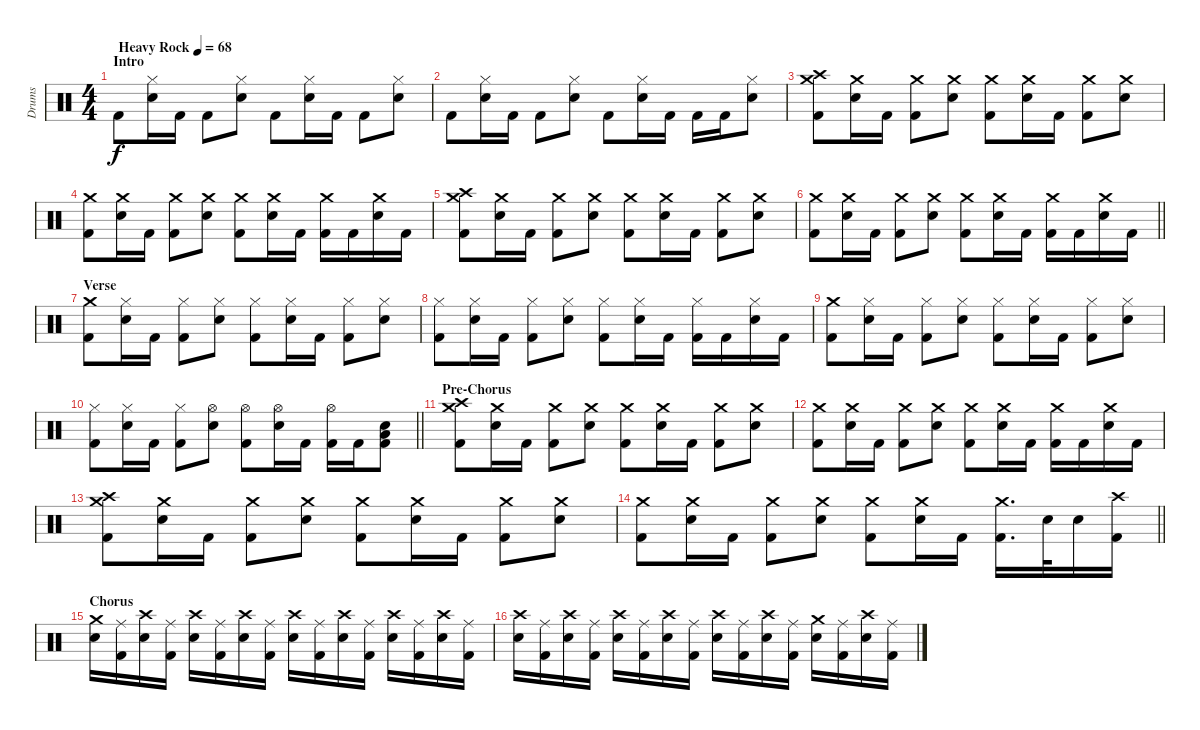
\track ("Drums" "Drums") {instrument percussion}
\staff {score}
\articulation defaults
\ts (4 4)
\section ("" "Intro")
\tempo (68 "Heavy Rock")
\clef neutral
\ks c "Kick (hit) 2".8{dy f}
("Hi-Hat (closed)" "Electric Snare (hit)").16 "Kick (hit) 2".16 "Kick (hit) 2".8 ("Hi-Hat (closed)" "Electric Snare (hit)").8 "Kick (hit) 2".8 ("Hi-Hat (closed)" "Electric Snare (hit)").16 "Kick (hit) 2".16 "Kick (hit) 2".8 ("Hi-Hat (closed)" "Electric Snare (hit)").8 |
"Kick (hit) 2".8 ("Hi-Hat (closed)" "Electric Snare (hit)").16 "Kick (hit) 2".16 "Kick (hit) 2".8 ("Hi-Hat (closed)" "Electric Snare (hit)").8 "Kick (hit) 2".8 ("Hi-Hat (closed)" "Electric Snare (hit)").16 "Kick (hit) 2".16 "Kick (hit) 2".16 "Kick (hit) 2".16 ("Hi-Hat (closed)" "Electric Snare (hit)").8 |
("Crash medium (hit)" "Crash high (hit)" "Kick (hit) 2").8 ("Crash medium (hit)" "Electric Snare (hit)").16 "Kick (hit) 2".16 ("Crash medium (hit)" "Kick (hit) 2").8 ("Crash medium (hit)" "Electric Snare (hit)").8 ("Crash medium (hit)" "Kick (hit) 2").8 ("Crash medium (hit)" "Electric Snare (hit)").16 "Kick (hit) 2".16 ("Crash medium (hit)" "Kick (hit) 2").8 ("Crash medium (hit)" "Electric Snare (hit)").8 |
("Crash medium (hit)" "Kick (hit) 2").8 ("Crash medium (hit)" "Electric Snare (hit)").16 "Kick (hit) 2".16 ("Crash medium (hit)" "Kick (hit) 2").8 ("Crash medium (hit)" "Electric Snare (hit)").8 ("Crash medium (hit)" "Kick (hit) 2").8 ("Crash medium (hit)" "Electric Snare (hit)").16 "Kick (hit) 2".16 ("Crash medium (hit)" "Kick (hit) 2").16 "Kick (hit) 2".16 ("Crash medium (hit)" "Electric Snare (hit)").16 "Kick (hit) 2".16 |
("Crash medium (hit)" "Crash high (hit)" "Kick (hit) 2").8 ("Crash medium (hit)" "Electric Snare (hit)").16 "Kick (hit) 2".16 ("Crash medium (hit)" "Kick (hit) 2").8 ("Crash medium (hit)" "Electric Snare (hit)").8 ("Crash medium (hit)" "Kick (hit) 2").8 ("Crash medium (hit)" "Electric Snare (hit)").16 "Kick (hit) 2".16 ("Crash medium (hit)" "Kick (hit) 2").8 ("Crash medium (hit)" "Electric Snare (hit)").8 |
\barLineRight lightlight
("Crash medium (hit)" "Kick (hit) 2").8 ("Crash medium (hit)" "Electric Snare (hit)").16 "Kick (hit) 2".16 ("Crash medium (hit)" "Kick (hit) 2").8 ("Crash medium (hit)" "Electric Snare (hit)").8 ("Crash medium (hit)" "Kick (hit) 2").8 ("Crash medium (hit)" "Electric Snare (hit)").16 "Kick (hit) 2".16 ("Crash medium (hit)" "Kick (hit) 2").16 "Kick (hit) 2".16 ("Crash medium (hit)" "Electric Snare (hit)").16 "Kick (hit) 2".16 |
\section ("" "Verse")
("Crash medium (hit)" "Kick (hit) 2").8 ("Hi-Hat (closed)" "Electric Snare (hit)").16 "Kick (hit) 2".16 ("Hi-Hat (closed)" "Kick (hit) 2").8 ("Hi-Hat (closed)" "Electric Snare (hit)").8 ("Hi-Hat (closed)" "Kick (hit) 2").8 ("Hi-Hat (closed)" "Electric Snare (hit)").16 "Kick (hit) 2".16 ("Hi-Hat (closed)" "Kick (hit) 2").8 ("Hi-Hat (closed)" "Electric Snare (hit)").8 |
("Hi-Hat (closed)" "Kick (hit) 2").8 ("Hi-Hat (closed)" "Electric Snare (hit)").16 "Kick (hit) 2".16 ("Hi-Hat (closed)" "Kick (hit) 2").8 ("Hi-Hat (closed)" "Electric Snare (hit)").8 ("Hi-Hat (closed)" "Kick (hit) 2").8 ("Hi-Hat (closed)" "Electric Snare (hit)").16 "Kick (hit) 2".16 ("Hi-Hat (closed)" "Kick (hit) 2").16 "Kick (hit) 2".16 ("Hi-Hat (closed)" "Electric Snare (hit)").16 "Kick (hit) 2".16 |
("Crash medium (hit)" "Kick (hit) 2").8 ("Hi-Hat (closed)" "Electric Snare (hit)").16 "Kick (hit) 2".16 ("Hi-Hat (closed)" "Kick (hit) 2").8 ("Hi-Hat (closed)" "Electric Snare (hit)").8 ("Hi-Hat (closed)" "Kick (hit) 2").8 ("Hi-Hat (closed)" "Electric Snare (hit)").16 "Kick (hit) 2".16 ("Hi-Hat (closed)" "Kick (hit) 2").8 ("Hi-Hat (closed)" "Electric Snare (hit)").8 |
\barLineRight lightlight
("Hi-Hat (closed)" "Kick (hit) 2").8 ("Hi-Hat (closed)" "Electric Snare (hit)").16 "Kick (hit) 2".16 ("Hi-Hat (closed)" "Kick (hit) 2").8 ("Hi-Hat (open)" "Electric Snare (hit)").8 ("Hi-Hat (open)" "Kick (hit) 2").8 ("Hi-Hat (open)" "Electric Snare (hit)").16 "Kick (hit) 2".16 ("Hi-Hat (open)" "Kick (hit) 2").16 "Kick (hit) 2".16 ("Low Floor Tom (hit)" "Electric Snare (hit)" "Kick (hit) 2").8 |
\section ("" "Pre-Chorus")
("Crash medium (hit)" "Crash high (hit)" "Kick (hit) 2").8 ("Crash medium (hit)" "Electric Snare (hit)").16 "Kick (hit) 2".16 ("Crash medium (hit)" "Kick (hit) 2").8 ("Crash medium (hit)" "Electric Snare (hit)").8 ("Crash medium (hit)" "Kick (hit) 2").8 ("Crash medium (hit)" "Electric Snare (hit)").16 "Kick (hit) 2".16 ("Crash medium (hit)" "Kick (hit) 2").8 ("Crash medium (hit)" "Electric Snare (hit)").8 |
("Crash medium (hit)" "Kick (hit) 2").8 ("Crash medium (hit)" "Electric Snare (hit)").16 "Kick (hit) 2".16 ("Crash medium (hit)" "Kick (hit) 2").8 ("Crash medium (hit)" "Electric Snare (hit)").8 ("Crash medium (hit)" "Kick (hit) 2").8 ("Crash medium (hit)" "Electric Snare (hit)").16 "Kick (hit) 2".16 ("Crash medium (hit)" "Kick (hit) 2").16 "Kick (hit) 2".16 ("Crash medium (hit)" "Electric Snare (hit)").16 "Kick (hit) 2".16 |
("Crash medium (hit)" "Crash high (hit)" "Kick (hit) 2").8 ("Crash medium (hit)" "Electric Snare (hit)").16 "Kick (hit) 2".16 ("Crash medium (hit)" "Kick (hit) 2").8 ("Crash medium (hit)" "Electric Snare (hit)").8 ("Crash medium (hit)" "Kick (hit) 2").8 ("Crash medium (hit)" "Electric Snare (hit)").16 "Kick (hit) 2".16 ("Crash medium (hit)" "Kick (hit) 2").8 ("Crash medium (hit)" "Electric Snare (hit)").8 |
\barLineRight lightlight
("Crash medium (hit)" "Kick (hit) 2").8 ("Crash medium (hit)" "Electric Snare (hit)").16 "Kick (hit) 2".16 ("Crash medium (hit)" "Kick (hit) 2").8 ("Crash medium (hit)" "Electric Snare (hit)").8 ("Crash medium (hit)" "Kick (hit) 2").8 ("Crash medium (hit)" "Electric Snare (hit)").16 "Kick (hit) 2".16 ("Crash medium (hit)" "Kick (hit) 2").16{d} "Electric Snare (hit)".32 "Electric Snare (hit)".16 ("Crash high (hit)" "Kick (hit) 2").16 |
\section ("" "Chorus")
("Crash medium (hit)" "Electric Snare (hit)").16 ("Ride (middle)" "Kick (hit) 2").16 ("Crash high (hit)" "Electric Snare (hit)").16 ("Ride (middle)" "Kick (hit) 2").16 ("Crash high (hit)" "Electric Snare (hit)").16 ("Ride (middle)" "Kick (hit) 2").16 ("Crash high (hit)" "Electric Snare (hit)").16 ("Ride (middle)" "Kick (hit) 2").16 ("Crash high (hit)" "Electric Snare (hit)").16 ("Ride (middle)" "Kick (hit) 2").16 ("Crash high (hit)" "Electric Snare (hit)").16 ("Ride (middle)" "Kick (hit) 2").16 ("Crash high (hit)" "Electric Snare (hit)").16 ("Ride (middle)" "Kick (hit) 2").16 ("Crash high (hit)" "Electric Snare (hit)").16 ("Ride (middle)" "Kick (hit) 2").16 |
("Crash high (hit)" "Electric Snare (hit)").16 ("Ride (middle)" "Kick (hit) 2").16 ("Crash high (hit)" "Electric Snare (hit)").16 ("Ride (middle)" "Kick (hit) 2").16 ("Crash high (hit)" "Electric Snare (hit)").16 ("Ride (middle)" "Kick (hit) 2").16 ("Crash high (hit)" "Electric Snare (hit)").16 ("Ride (middle)" "Kick (hit) 2").16 ("Crash high (hit)" "Electric Snare (hit)").16 ("Ride (middle)" "Kick (hit) 2").16 ("Crash high (hit)" "Electric Snare (hit)").16 ("Ride (middle)" "Kick (hit) 2").16 ("Crash medium (hit)" "Electric Snare (hit)").16 ("Ride (middle)" "Kick (hit) 2").16 ("Crash high (hit)" "Electric Snare (hit)").16 ("Ride (middle)" "Kick (hit) 2").16
